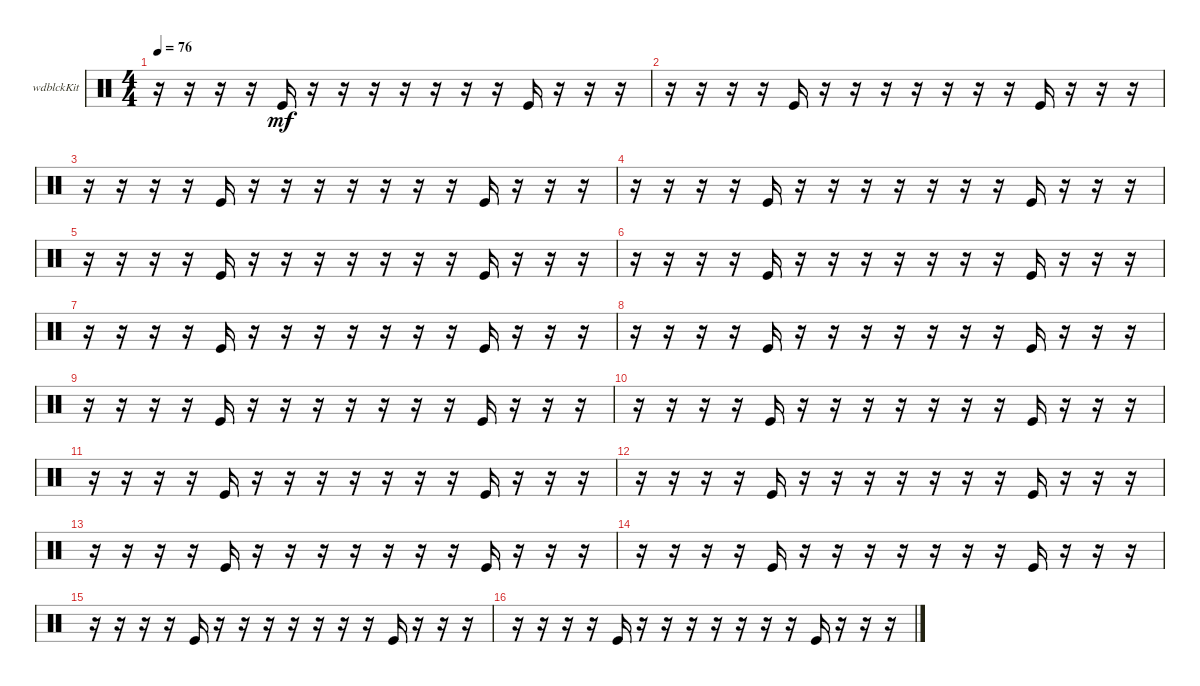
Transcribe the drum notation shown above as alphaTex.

\bracketExtendMode groupsimilarinstruments
\firstSystemTrackNameOrientation horizontal
\otherSystemsTrackNameOrientation horizontal
\track ("Woodblock" "wdblckKit") {instrument percussion}
\staff {score}
\articulation defaults
\ts (4 4)
\tempo 76
\clef neutral
\ks c
r.16{dy mf} r.16 r.16 r.16 "Kick (hit)".16 r.16 r.16 r.16 r.16 r.16 r.16 r.16 "Kick (hit)".16 r.16 r.16 r.16 |
r.16 r.16 r.16 r.16 "Kick (hit)".16 r.16 r.16 r.16 r.16 r.16 r.16 r.16 "Kick (hit)".16 r.16 r.16 r.16 |
r.16 r.16 r.16 r.16 "Kick (hit)".16 r.16 r.16 r.16 r.16 r.16 r.16 r.16 "Kick (hit)".16 r.16 r.16 r.16 |
r.16 r.16 r.16 r.16 "Kick (hit)".16 r.16 r.16 r.16 r.16 r.16 r.16 r.16 "Kick (hit)".16 r.16 r.16 r.16 |
r.16 r.16 r.16 r.16 "Kick (hit)".16 r.16 r.16 r.16 r.16 r.16 r.16 r.16 "Kick (hit)".16 r.16 r.16 r.16 |
r.16 r.16 r.16 r.16 "Kick (hit)".16 r.16 r.16 r.16 r.16 r.16 r.16 r.16 "Kick (hit)".16 r.16 r.16 r.16 |
r.16 r.16 r.16 r.16 "Kick (hit)".16 r.16 r.16 r.16 r.16 r.16 r.16 r.16 "Kick (hit)".16 r.16 r.16 r.16 |
r.16 r.16 r.16 r.16 "Kick (hit)".16 r.16 r.16 r.16 r.16 r.16 r.16 r.16 "Kick (hit)".16 r.16 r.16 r.16 |
r.16 r.16 r.16 r.16 "Kick (hit)".16 r.16 r.16 r.16 r.16 r.16 r.16 r.16 "Kick (hit)".16 r.16 r.16 r.16 |
r.16 r.16 r.16 r.16 "Kick (hit)".16 r.16 r.16 r.16 r.16 r.16 r.16 r.16 "Kick (hit)".16 r.16 r.16 r.16 |
r.16 r.16 r.16 r.16 "Kick (hit)".16 r.16 r.16 r.16 r.16 r.16 r.16 r.16 "Kick (hit)".16 r.16 r.16 r.16 |
r.16 r.16 r.16 r.16 "Kick (hit)".16 r.16 r.16 r.16 r.16 r.16 r.16 r.16 "Kick (hit)".16 r.16 r.16 r.16 |
r.16 r.16 r.16 r.16 "Kick (hit)".16 r.16 r.16 r.16 r.16 r.16 r.16 r.16 "Kick (hit)".16 r.16 r.16 r.16 |
r.16 r.16 r.16 r.16 "Kick (hit)".16 r.16 r.16 r.16 r.16 r.16 r.16 r.16 "Kick (hit)".16 r.16 r.16 r.16 |
r.16 r.16 r.16 r.16 "Kick (hit)".16 r.16 r.16 r.16 r.16 r.16 r.16 r.16 "Kick (hit)".16 r.16 r.16 r.16 |
r.16 r.16 r.16 r.16 "Kick (hit)".16 r.16 r.16 r.16 r.16 r.16 r.16 r.16 "Kick (hit)".16 r.16 r.16 r.16
